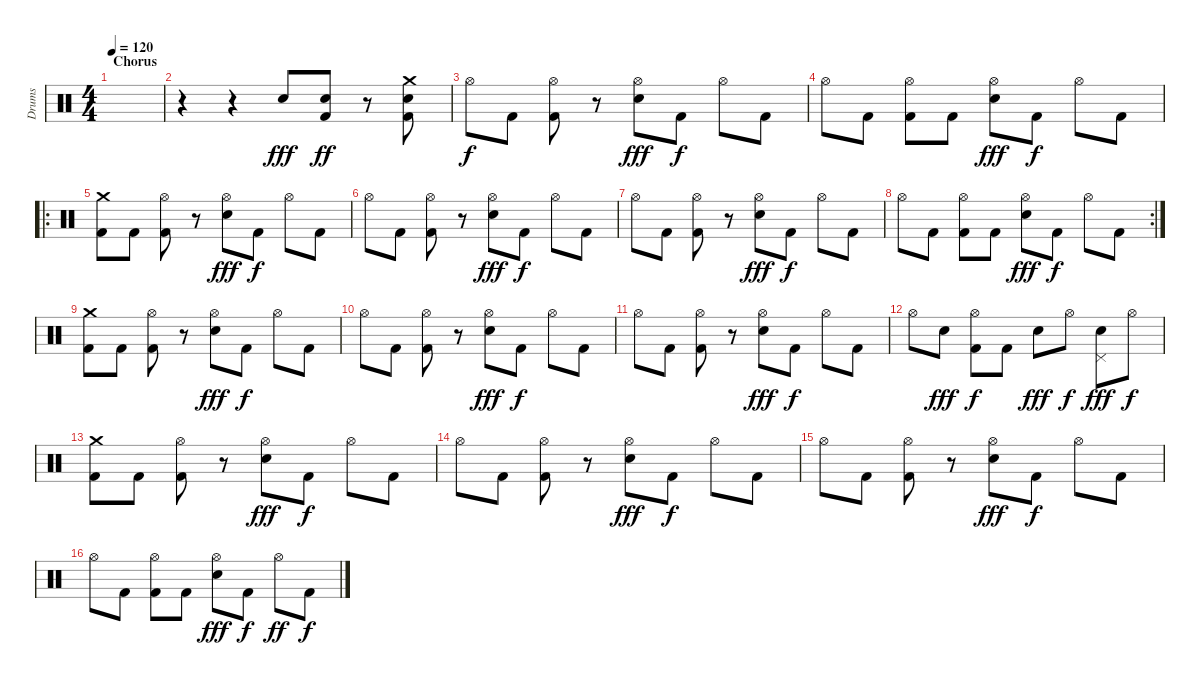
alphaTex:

\track ("Drums" "Drums") {instrument percussion}
\staff {score}
\articulation defaults
\ts (4 4)
\section ("" "Chorus")
\tempo 120
\clef neutral
\ks c
|
r.4 r.4 "Electric Snare (hit)".8{dy fff} ("Electric Snare (hit)" "Kick (hit) 2").8{dy ff} r.8 ("Crash medium (hit)" "Electric Snare (hit)" "Kick (hit) 2").8 |
"Hi-Hat (open)".8{dy f} "Kick (hit) 2".8 ("Hi-Hat (open)" "Kick (hit) 2").8 r.8 ("Hi-Hat (open)" "Electric Snare (hit)").8{dy fff} "Kick (hit) 2".8{dy f} "Hi-Hat (open)".8 "Kick (hit) 2".8 |
"Hi-Hat (open)".8 "Kick (hit) 2".8 ("Hi-Hat (open)" "Kick (hit) 2").8 "Kick (hit) 2".8 ("Hi-Hat (open)" "Electric Snare (hit)").8{dy fff} "Kick (hit) 2".8{dy f} "Hi-Hat (open)".8 "Kick (hit) 2".8 |
\ro
("Crash medium (hit)" "Kick (hit) 2").8 "Kick (hit) 2".8 ("Hi-Hat (open)" "Kick (hit) 2").8 r.8 ("Hi-Hat (open)" "Electric Snare (hit)").8{dy fff} "Kick (hit) 2".8{dy f} "Hi-Hat (open)".8 "Kick (hit) 2".8 |
"Hi-Hat (open)".8 "Kick (hit) 2".8 ("Hi-Hat (open)" "Kick (hit) 2").8 r.8 ("Hi-Hat (open)" "Electric Snare (hit)").8{dy fff} "Kick (hit) 2".8{dy f} "Hi-Hat (open)".8 "Kick (hit) 2".8 |
"Hi-Hat (open)".8 "Kick (hit) 2".8 ("Hi-Hat (open)" "Kick (hit) 2").8 r.8 ("Hi-Hat (open)" "Electric Snare (hit)").8{dy fff} "Kick (hit) 2".8{dy f} "Hi-Hat (open)".8 "Kick (hit) 2".8 |
\rc 2 "Hi-Hat (open)".8 "Kick (hit) 2".8
("Hi-Hat (open)" "Kick (hit) 2").8 "Kick (hit) 2".8 ("Hi-Hat (open)" "Electric Snare (hit)").8{dy fff} "Kick (hit) 2".8{dy f} "Hi-Hat (open)".8 "Kick (hit) 2".8 |
("Crash medium (hit)" "Kick (hit) 2").8 "Kick (hit) 2".8 ("Hi-Hat (open)" "Kick (hit) 2").8 r.8 ("Hi-Hat (open)" "Electric Snare (hit)").8{dy fff} "Kick (hit) 2".8{dy f} "Hi-Hat (open)".8 "Kick (hit) 2".8 |
"Hi-Hat (open)".8 "Kick (hit) 2".8 ("Hi-Hat (open)" "Kick (hit) 2").8 r.8 ("Hi-Hat (open)" "Electric Snare (hit)").8{dy fff} "Kick (hit) 2".8{dy f} "Hi-Hat (open)".8 "Kick (hit) 2".8 |
"Hi-Hat (open)".8 "Kick (hit) 2".8 ("Hi-Hat (open)" "Kick (hit) 2").8 r.8 ("Hi-Hat (open)" "Electric Snare (hit)").8{dy fff} "Kick (hit) 2".8{dy f} "Hi-Hat (open)".8 "Kick (hit) 2".8 |
"Hi-Hat (open)".8 "Electric Snare (hit)".8{dy fff} ("Hi-Hat (open)" "Kick (hit) 2").8{dy f} "Kick (hit) 2".8 "Electric Snare (hit)".8{dy fff} "Hi-Hat (open)".8{dy f} ("Pedal Hi-Hat (hit)" "Electric Snare (hit)").8{dy fff} "Hi-Hat (open)".8{dy f} |
("Crash medium (hit)" "Kick (hit) 2").8 "Kick (hit) 2".8 ("Hi-Hat (open)" "Kick (hit) 2").8 r.8 ("Hi-Hat (open)" "Electric Snare (hit)").8{dy fff} "Kick (hit) 2".8{dy f} "Hi-Hat (open)".8 "Kick (hit) 2".8 |
"Hi-Hat (open)".8 "Kick (hit) 2".8 ("Hi-Hat (open)" "Kick (hit) 2").8 r.8 ("Hi-Hat (open)" "Electric Snare (hit)").8{dy fff} "Kick (hit) 2".8{dy f} "Hi-Hat (open)".8 "Kick (hit) 2".8 |
"Hi-Hat (open)".8 "Kick (hit) 2".8 ("Hi-Hat (open)" "Kick (hit) 2").8 r.8 ("Hi-Hat (open)" "Electric Snare (hit)").8{dy fff} "Kick (hit) 2".8{dy f} "Hi-Hat (open)".8 "Kick (hit) 2".8 |
"Hi-Hat (open)".8 "Kick (hit) 2".8 ("Hi-Hat (open)" "Kick (hit) 2").8 "Kick (hit) 2".8 ("Hi-Hat (open)" "Electric Snare (hit)").8{dy fff} "Kick (hit) 2".8{dy f} "Hi-Hat (open)".8{dy ff} "Kick (hit) 2".8{dy f}
